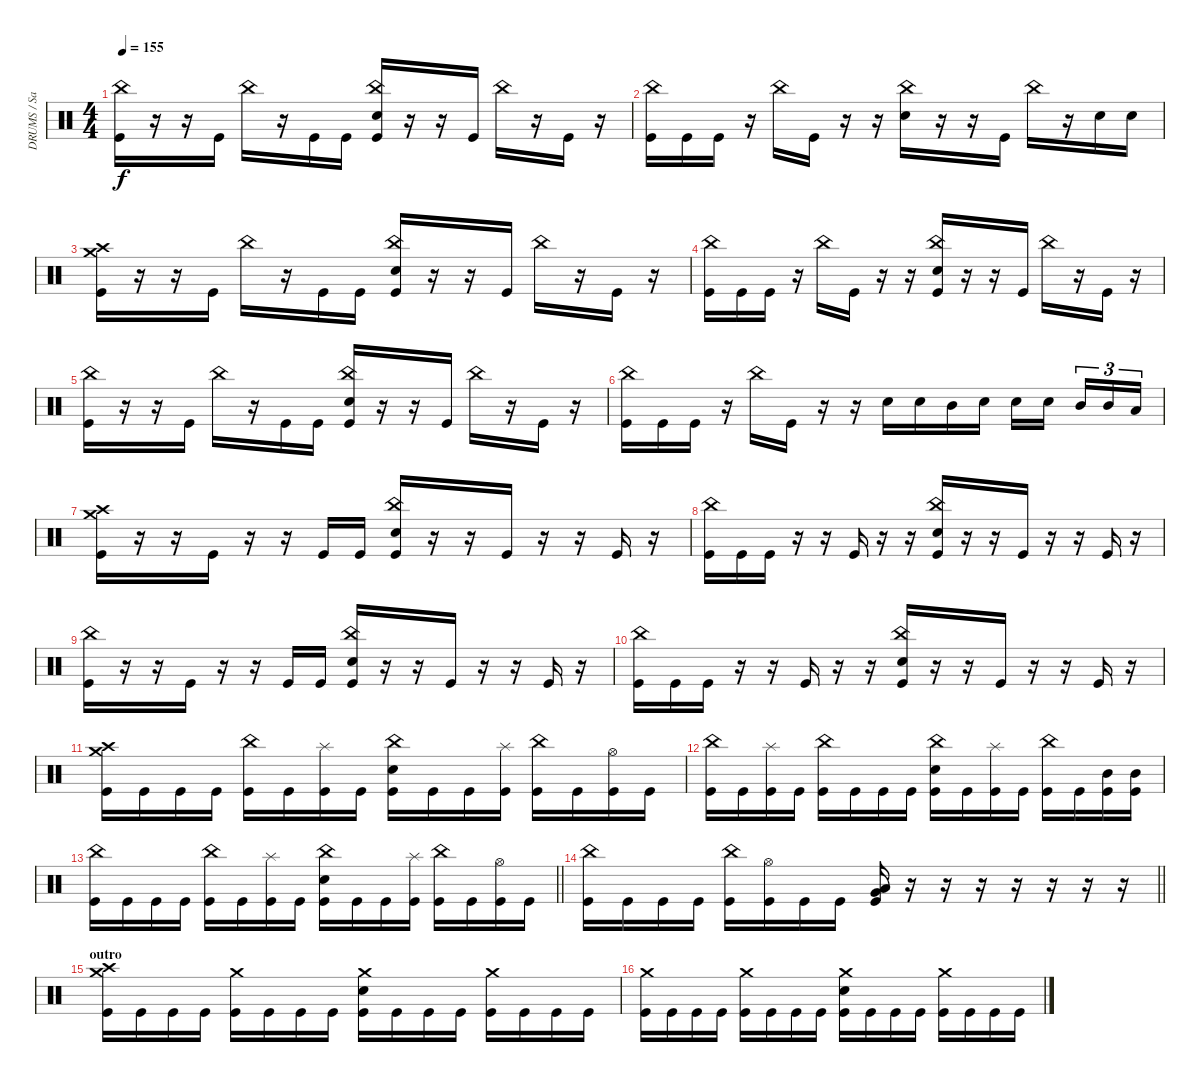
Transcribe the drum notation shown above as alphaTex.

\track ("DRUMS / Sasha" "DRUMS / Sa") {instrument percussion}
\staff {score}
\articulation defaults
\ts (4 4)
\tempo 155
\clef neutral
\ks c
("Kick (hit)" "China (hit)").16{dy f} r.16 r.16 "Kick (hit)".16 "China (hit)".16 r.16 "Kick (hit)".16 "Kick (hit)".16 ("Kick (hit)" "China (hit)" "Snare (hit) 2").16 r.16 r.16 "Kick (hit)".16 "China (hit)".16 r.16 "Kick (hit)".16 r.16 |
("Kick (hit)" "China (hit)").16 "Kick (hit)".16 "Kick (hit)".16 r.16 "China (hit)".16 "Kick (hit)".16 r.16 r.16 ("Snare (hit) 2" "China (hit)").16 r.16 r.16 "Kick (hit)".16 "China (hit)".16 r.16 "Snare (hit) 2".16 "Snare (hit) 2".16 |
("Kick (hit)" "Crash high (hit)" "Crash medium (hit)").16 r.16 r.16 "Kick (hit)".16 "China (hit)".16 r.16 "Kick (hit)".16 "Kick (hit)".16 ("Kick (hit)" "China (hit)" "Snare (hit) 2").16 r.16 r.16 "Kick (hit)".16 "China (hit)".16 r.16 "Kick (hit)".16 r.16 |
("Kick (hit)" "China (hit)").16 "Kick (hit)".16 "Kick (hit)".16 r.16 "China (hit)".16 "Kick (hit)".16 r.16 r.16 ("Kick (hit)" "China (hit)" "Snare (hit) 2").16 r.16 r.16 "Kick (hit)".16 "China (hit)".16 r.16 "Kick (hit)".16 r.16 |
("Kick (hit)" "China (hit)").16 r.16 r.16 "Kick (hit)".16 "China (hit)".16 r.16 "Kick (hit)".16 "Kick (hit)".16 ("Kick (hit)" "China (hit)" "Snare (hit) 2").16 r.16 r.16 "Kick (hit)".16 "China (hit)".16 r.16 "Kick (hit)".16 r.16 |
("Kick (hit)" "China (hit)").16 "Kick (hit)".16 "Kick (hit)".16 r.16 "China (hit)".16 "Kick (hit)".16 r.16 r.16 "Snare (hit) 2".16 "Snare (hit) 2".16 "Mid Tom (hit)".16 "Snare (hit) 2".16 "Snare (hit) 2".16 "Snare (hit) 2".16{beam splitsecondary} "Mid Tom (hit)".16{tu (3 2)} "Mid Tom (hit)".16{tu (3 2)} "Low Tom (hit)".16{tu (3 2)} |
("Kick (hit)" "Crash high (hit)" "Crash medium (hit)").16 r.16 r.16 "Kick (hit)".16 r.16 r.16 "Kick (hit)".16 "Kick (hit)".16 ("Kick (hit)" "China (hit)" "Snare (hit) 2").16 r.16 r.16 "Kick (hit)".16 r.16 r.16 "Kick (hit)".16 r.16 |
("Kick (hit)" "China (hit)").16 "Kick (hit)".16 "Kick (hit)".16 r.16 r.16 "Kick (hit)".16 r.16 r.16 ("Kick (hit)" "China (hit)" "Snare (hit) 2").16 r.16 r.16 "Kick (hit)".16 r.16 r.16 "Kick (hit)".16 r.16 |
("Kick (hit)" "China (hit)").16 r.16 r.16 "Kick (hit)".16 r.16 r.16 "Kick (hit)".16 "Kick (hit)".16 ("Kick (hit)" "China (hit)" "Snare (hit) 2").16 r.16 r.16 "Kick (hit)".16 r.16 r.16 "Kick (hit)".16 r.16 |
("Kick (hit)" "China (hit)").16 "Kick (hit)".16 "Kick (hit)".16 r.16 r.16 "Kick (hit)".16 r.16 r.16 ("Kick (hit)" "China (hit)" "Snare (hit) 2").16 r.16 r.16 "Kick (hit)".16 r.16 r.16 "Kick (hit)".16 r.16 |
("Kick (hit)" "Crash high (hit)" "Crash medium (hit)").16 "Kick (hit)".16 "Kick (hit)".16 "Kick (hit)".16 ("China (hit)" "Kick (hit)").16 "Kick (hit)".16 ("Kick (hit)" "Splash (hit)").16 "Kick (hit)".16 ("Kick (hit)" "China (hit)" "Snare (hit) 2").16 "Kick (hit)".16 "Kick (hit)".16 ("Kick (hit)" "Splash (hit)").16 ("China (hit)" "Kick (hit)").16 "Kick (hit)".16 ("Kick (hit)" "Hi-Hat (open)").16 "Kick (hit)".16 |
("Kick (hit)" "China (hit)").16 "Kick (hit)".16 ("Kick (hit)" "Splash (hit)").16 "Kick (hit)".16 ("China (hit)" "Kick (hit)").16 "Kick (hit)".16 "Kick (hit)".16 "Kick (hit)".16 ("Kick (hit)" "China (hit)" "Snare (hit) 2").16 "Kick (hit)".16 ("Kick (hit)" "Splash (hit)").16 "Kick (hit)".16 ("China (hit)" "Kick (hit)").16 "Kick (hit)".16 ("Kick (hit)" "Mid Tom (hit)").16 ("Kick (hit)" "Mid Tom (hit)").16 |
\barLineRight lightlight
("Kick (hit)" "China (hit)").16 "Kick (hit)".16 "Kick (hit)".16 "Kick (hit)".16 ("China (hit)" "Kick (hit)").16 "Kick (hit)".16 ("Kick (hit)" "Splash (hit)").16 "Kick (hit)".16 ("Kick (hit)" "China (hit)" "Snare (hit) 2").16 "Kick (hit)".16 "Kick (hit)".16 ("Kick (hit)" "Splash (hit)").16 ("China (hit)" "Kick (hit)").16 "Kick (hit)".16 ("Kick (hit)" "Hi-Hat (open)").16 "Kick (hit)".16 |
\section ("" "")
\barLineRight lightlight
("Kick (hit)" "China (hit)").16 "Kick (hit)".16 "Kick (hit)".16 "Kick (hit)".16 ("China (hit)" "Kick (hit)").16 ("Kick (hit)" "Hi-Hat (open)").16 "Kick (hit)".16 "Kick (hit)".16 ("Kick (hit)" "Low Tom (hit)" "Very Low Tom (hit)").16 r.16 r.16 r.16 r.16 r.16 r.16 r.16 |
\section ("" "outro")
("Kick (hit)" "Crash high (hit)" "Crash medium (hit)").16 "Kick (hit)".16 "Kick (hit)".16 "Kick (hit)".16 ("Kick (hit)" "Crash medium (hit)").16 "Kick (hit)".16 "Kick (hit)".16 "Kick (hit)".16 ("Kick (hit)" "Crash medium (hit)" "Snare (hit) 2").16 "Kick (hit)".16 "Kick (hit)".16 "Kick (hit)".16 ("Kick (hit)" "Crash medium (hit)").16 "Kick (hit)".16 "Kick (hit)".16 "Kick (hit)".16 |
("Kick (hit)" "Crash medium (hit)").16 "Kick (hit)".16 "Kick (hit)".16 "Kick (hit)".16 ("Kick (hit)" "Crash medium (hit)").16 "Kick (hit)".16 "Kick (hit)".16 "Kick (hit)".16 ("Kick (hit)" "Crash medium (hit)" "Snare (hit) 2").16 "Kick (hit)".16 "Kick (hit)".16 "Kick (hit)".16 ("Kick (hit)" "Crash medium (hit)").16 "Kick (hit)".16 "Kick (hit)".16 "Kick (hit)".16
